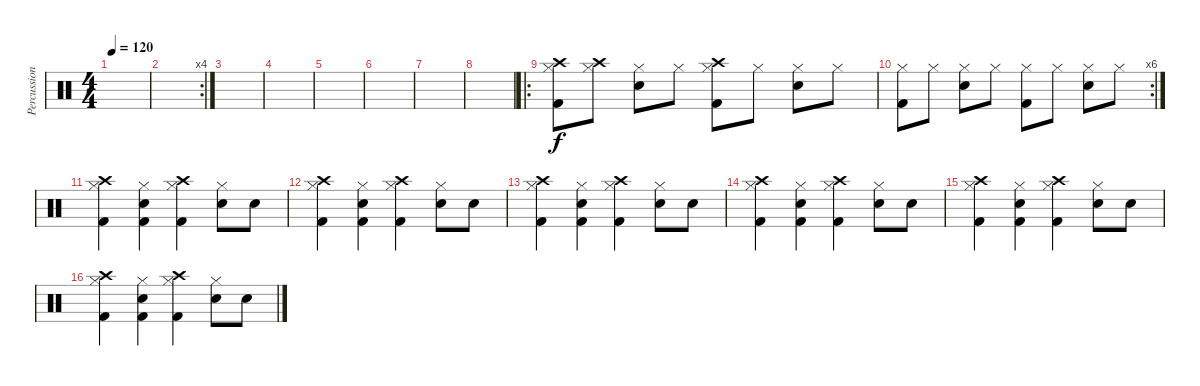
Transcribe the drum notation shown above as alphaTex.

\track ("Percussion" "Percussion") {instrument percussion}
\staff {score}
\articulation defaults
\ts (4 4)
\tempo 120
\clef neutral
\ks c
|
\rc 4
|
|
|
|
|
|
|
\ro
("Crash high (hit)" "Hi-Hat (closed)" "Kick (hit) 2").8 ("Crash high (hit)" "Hi-Hat (closed)").8 ("Hi-Hat (closed)" "Snare (hit) 2").8 "Hi-Hat (closed)".8 ("Crash high (hit)" "Hi-Hat (closed)" "Kick (hit) 2").8 "Hi-Hat (closed)".8 ("Hi-Hat (closed)" "Snare (hit) 2").8 "Hi-Hat (closed)".8 |
\rc 6
("Hi-Hat (closed)" "Kick (hit) 2").8 "Hi-Hat (closed)".8 ("Hi-Hat (closed)" "Snare (hit) 2").8 "Hi-Hat (closed)".8 ("Hi-Hat (closed)" "Kick (hit) 2").8 "Hi-Hat (closed)".8 ("Hi-Hat (closed)" "Snare (hit) 2").8 "Hi-Hat (closed)".8 |
("Crash high (hit)" "Hi-Hat (closed)" "Kick (hit) 2").4 ("Hi-Hat (closed)" "Snare (hit) 2" "Kick (hit) 2").4 ("Crash high (hit)" "Hi-Hat (closed)" "Kick (hit) 2").4 ("Hi-Hat (closed)" "Snare (hit) 2").8 "Snare (hit) 2".8 |
("Crash high (hit)" "Hi-Hat (closed)" "Kick (hit) 2").4 ("Hi-Hat (closed)" "Snare (hit) 2" "Kick (hit) 2").4 ("Crash high (hit)" "Hi-Hat (closed)" "Kick (hit) 2").4 ("Hi-Hat (closed)" "Snare (hit) 2").8 "Snare (hit) 2".8 |
("Crash high (hit)" "Hi-Hat (closed)" "Kick (hit) 2").4 ("Hi-Hat (closed)" "Snare (hit) 2" "Kick (hit) 2").4 ("Crash high (hit)" "Hi-Hat (closed)" "Kick (hit) 2").4 ("Hi-Hat (closed)" "Snare (hit) 2").8 "Snare (hit) 2".8 |
("Crash high (hit)" "Hi-Hat (closed)" "Kick (hit) 2").4 ("Hi-Hat (closed)" "Snare (hit) 2" "Kick (hit) 2").4 ("Crash high (hit)" "Hi-Hat (closed)" "Kick (hit) 2").4 ("Hi-Hat (closed)" "Snare (hit) 2").8 "Snare (hit) 2".8 |
("Crash high (hit)" "Hi-Hat (closed)" "Kick (hit) 2").4 ("Hi-Hat (closed)" "Snare (hit) 2" "Kick (hit) 2").4 ("Crash high (hit)" "Hi-Hat (closed)" "Kick (hit) 2").4 ("Hi-Hat (closed)" "Snare (hit) 2").8 "Snare (hit) 2".8 |
("Crash high (hit)" "Hi-Hat (closed)" "Kick (hit) 2").4 ("Hi-Hat (closed)" "Snare (hit) 2" "Kick (hit) 2").4 ("Crash high (hit)" "Hi-Hat (closed)" "Kick (hit) 2").4 ("Hi-Hat (closed)" "Snare (hit) 2").8 "Snare (hit) 2".8
